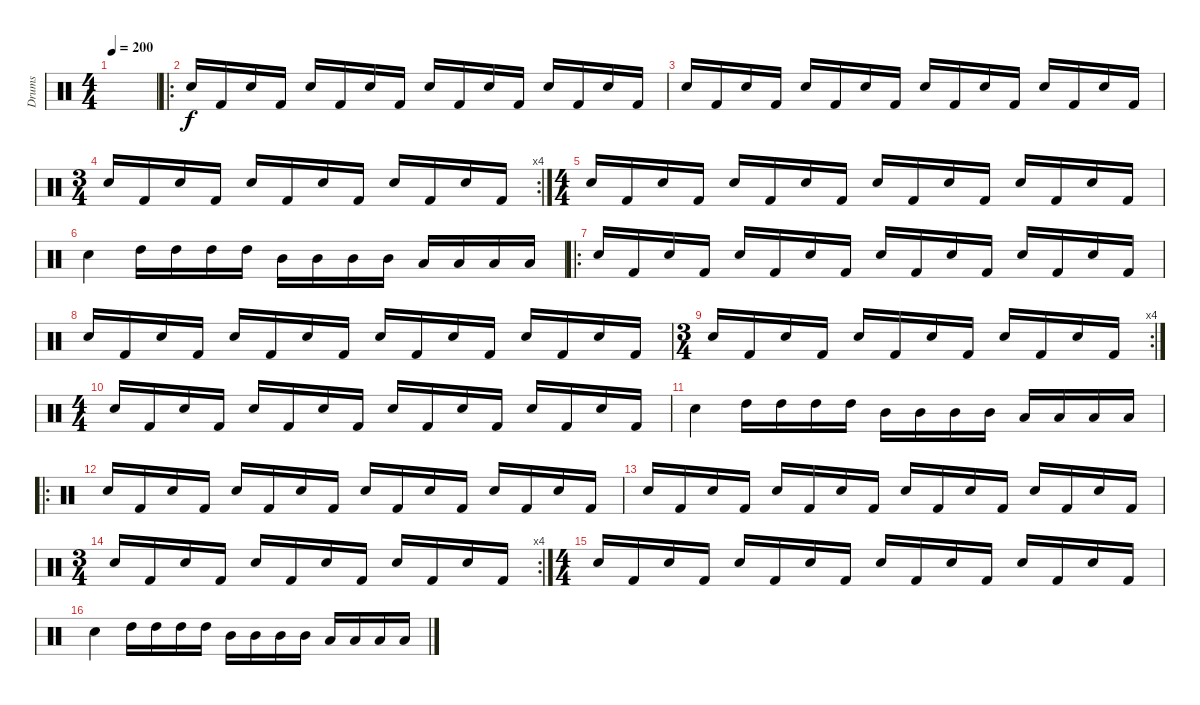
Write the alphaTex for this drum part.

\track ("Drums" "Drums") {instrument percussion}
\staff {score}
\articulation defaults
\ts (4 4)
\tempo 200
\clef neutral
\ks c
|
\ro "Electric Snare (hit)".16 "Kick (hit) 2".16 "Electric Snare (hit)".16 "Kick (hit) 2".16 "Electric Snare (hit)".16 "Kick (hit) 2".16 "Electric Snare (hit)".16 "Kick (hit) 2".16 "Electric Snare (hit)".16 "Kick (hit) 2".16 "Electric Snare (hit)".16 "Kick (hit) 2".16 "Electric Snare (hit)".16 "Kick (hit) 2".16 "Electric Snare (hit)".16 "Kick (hit) 2".16
|
"Electric Snare (hit)".16 "Kick (hit) 2".16 "Electric Snare (hit)".16 "Kick (hit) 2".16 "Electric Snare (hit)".16 "Kick (hit) 2".16 "Electric Snare (hit)".16 "Kick (hit) 2".16 "Electric Snare (hit)".16 "Kick (hit) 2".16 "Electric Snare (hit)".16 "Kick (hit) 2".16 "Electric Snare (hit)".16 "Kick (hit) 2".16 "Electric Snare (hit)".16 "Kick (hit) 2".16 |
\rc 4
\ts (3 4)
"Electric Snare (hit)".16 "Kick (hit) 2".16 "Electric Snare (hit)".16 "Kick (hit) 2".16 "Electric Snare (hit)".16 "Kick (hit) 2".16 "Electric Snare (hit)".16 "Kick (hit) 2".16 "Electric Snare (hit)".16 "Kick (hit) 2".16 "Electric Snare (hit)".16 "Kick (hit) 2".16 |
\ts (4 4)
"Electric Snare (hit)".16 "Kick (hit) 2".16 "Electric Snare (hit)".16 "Kick (hit) 2".16 "Electric Snare (hit)".16 "Kick (hit) 2".16 "Electric Snare (hit)".16 "Kick (hit) 2".16 "Electric Snare (hit)".16 "Kick (hit) 2".16 "Electric Snare (hit)".16 "Kick (hit) 2".16 "Electric Snare (hit)".16 "Kick (hit) 2".16 "Electric Snare (hit)".16 "Kick (hit) 2".16 |
"Electric Snare (hit)".4 "High Tom (hit)".16 "High Tom (hit)".16 "High Tom (hit)".16 "High Tom (hit)".16 "Mid Tom (hit)".16 "Mid Tom (hit)".16 "Mid Tom (hit)".16 "Mid Tom (hit)".16 "Low Tom (hit)".16 "Low Tom (hit)".16 "Low Tom (hit)".16 "Low Tom (hit)".16 |
\ro "Electric Snare (hit)".16 "Kick (hit) 2".16 "Electric Snare (hit)".16 "Kick (hit) 2".16 "Electric Snare (hit)".16 "Kick (hit) 2".16 "Electric Snare (hit)".16 "Kick (hit) 2".16 "Electric Snare (hit)".16 "Kick (hit) 2".16 "Electric Snare (hit)".16 "Kick (hit) 2".16 "Electric Snare (hit)".16 "Kick (hit) 2".16 "Electric Snare (hit)".16 "Kick (hit) 2".16
|
"Electric Snare (hit)".16 "Kick (hit) 2".16 "Electric Snare (hit)".16 "Kick (hit) 2".16 "Electric Snare (hit)".16 "Kick (hit) 2".16 "Electric Snare (hit)".16 "Kick (hit) 2".16 "Electric Snare (hit)".16 "Kick (hit) 2".16 "Electric Snare (hit)".16 "Kick (hit) 2".16 "Electric Snare (hit)".16 "Kick (hit) 2".16 "Electric Snare (hit)".16 "Kick (hit) 2".16 |
\rc 4
\ts (3 4)
"Electric Snare (hit)".16 "Kick (hit) 2".16 "Electric Snare (hit)".16 "Kick (hit) 2".16 "Electric Snare (hit)".16 "Kick (hit) 2".16 "Electric Snare (hit)".16 "Kick (hit) 2".16 "Electric Snare (hit)".16 "Kick (hit) 2".16 "Electric Snare (hit)".16 "Kick (hit) 2".16 |
\ts (4 4)
"Electric Snare (hit)".16 "Kick (hit) 2".16 "Electric Snare (hit)".16 "Kick (hit) 2".16 "Electric Snare (hit)".16 "Kick (hit) 2".16 "Electric Snare (hit)".16 "Kick (hit) 2".16 "Electric Snare (hit)".16 "Kick (hit) 2".16 "Electric Snare (hit)".16 "Kick (hit) 2".16 "Electric Snare (hit)".16 "Kick (hit) 2".16 "Electric Snare (hit)".16 "Kick (hit) 2".16 |
"Electric Snare (hit)".4 "High Tom (hit)".16 "High Tom (hit)".16 "High Tom (hit)".16 "High Tom (hit)".16 "Mid Tom (hit)".16 "Mid Tom (hit)".16 "Mid Tom (hit)".16 "Mid Tom (hit)".16 "Low Tom (hit)".16 "Low Tom (hit)".16 "Low Tom (hit)".16 "Low Tom (hit)".16 |
\ro "Electric Snare (hit)".16 "Kick (hit) 2".16 "Electric Snare (hit)".16 "Kick (hit) 2".16 "Electric Snare (hit)".16 "Kick (hit) 2".16 "Electric Snare (hit)".16 "Kick (hit) 2".16 "Electric Snare (hit)".16 "Kick (hit) 2".16 "Electric Snare (hit)".16 "Kick (hit) 2".16 "Electric Snare (hit)".16 "Kick (hit) 2".16 "Electric Snare (hit)".16 "Kick (hit) 2".16
|
"Electric Snare (hit)".16 "Kick (hit) 2".16 "Electric Snare (hit)".16 "Kick (hit) 2".16 "Electric Snare (hit)".16 "Kick (hit) 2".16 "Electric Snare (hit)".16 "Kick (hit) 2".16 "Electric Snare (hit)".16 "Kick (hit) 2".16 "Electric Snare (hit)".16 "Kick (hit) 2".16 "Electric Snare (hit)".16 "Kick (hit) 2".16 "Electric Snare (hit)".16 "Kick (hit) 2".16 |
\rc 4
\ts (3 4)
"Electric Snare (hit)".16 "Kick (hit) 2".16 "Electric Snare (hit)".16 "Kick (hit) 2".16 "Electric Snare (hit)".16 "Kick (hit) 2".16 "Electric Snare (hit)".16 "Kick (hit) 2".16 "Electric Snare (hit)".16 "Kick (hit) 2".16 "Electric Snare (hit)".16 "Kick (hit) 2".16 |
\ts (4 4)
"Electric Snare (hit)".16 "Kick (hit) 2".16 "Electric Snare (hit)".16 "Kick (hit) 2".16 "Electric Snare (hit)".16 "Kick (hit) 2".16 "Electric Snare (hit)".16 "Kick (hit) 2".16 "Electric Snare (hit)".16 "Kick (hit) 2".16 "Electric Snare (hit)".16 "Kick (hit) 2".16 "Electric Snare (hit)".16 "Kick (hit) 2".16 "Electric Snare (hit)".16 "Kick (hit) 2".16 |
"Electric Snare (hit)".4 "High Tom (hit)".16 "High Tom (hit)".16 "High Tom (hit)".16 "High Tom (hit)".16 "Mid Tom (hit)".16 "Mid Tom (hit)".16 "Mid Tom (hit)".16 "Mid Tom (hit)".16 "Low Tom (hit)".16 "Low Tom (hit)".16 "Low Tom (hit)".16 "Low Tom (hit)".16
